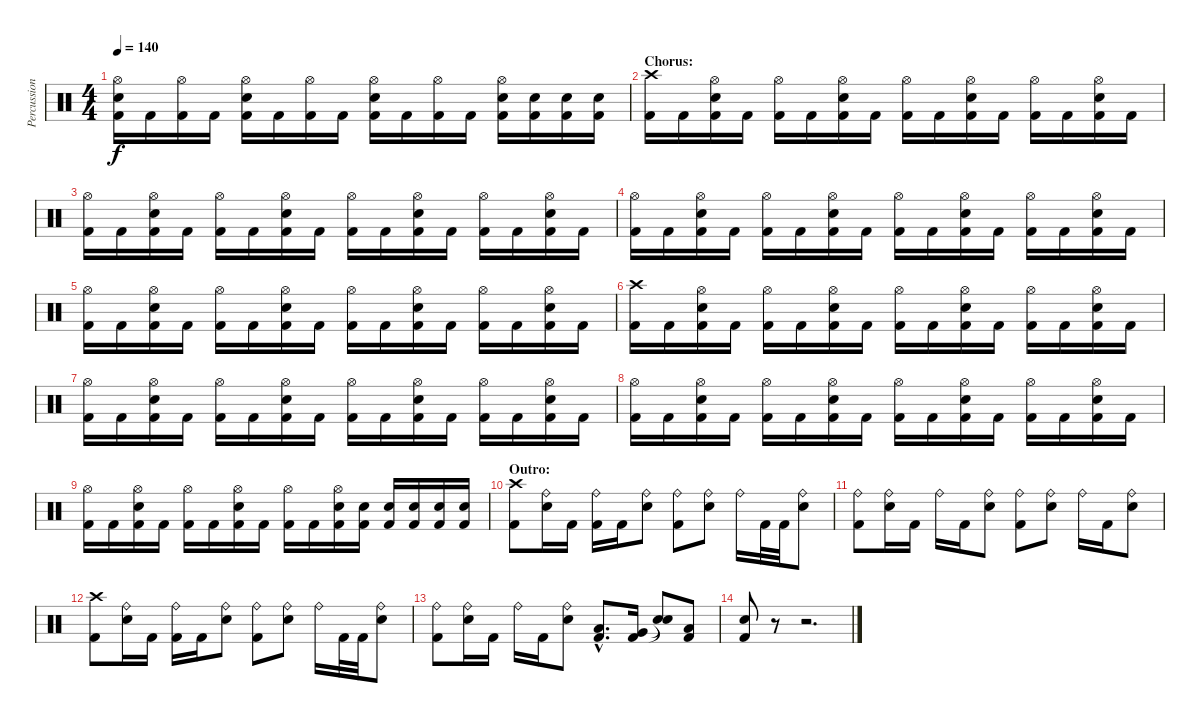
\track ("Percussion" "Percussion") {instrument percussion}
\staff {score}
\articulation defaults
\ts (4 4)
\tempo 140
\clef neutral
\ks c
("Hi-Hat (open)" "Electric Snare (hit)" "Kick (hit) 2").16{dy f} "Kick (hit) 2".16 ("Hi-Hat (open)" "Kick (hit) 2").16 "Kick (hit) 2".16 ("Hi-Hat (open)" "Electric Snare (hit)" "Kick (hit) 2").16 "Kick (hit) 2".16 ("Hi-Hat (open)" "Kick (hit) 2").16 "Kick (hit) 2".16 ("Hi-Hat (open)" "Electric Snare (hit)" "Kick (hit) 2").16 "Kick (hit) 2".16 ("Hi-Hat (open)" "Kick (hit) 2").16 "Kick (hit) 2".16 ("Hi-Hat (open)" "Electric Snare (hit)" "Kick (hit) 2").16 ("Electric Snare (hit)" "Kick (hit) 2").16 ("Electric Snare (hit)" "Kick (hit) 2").16 ("Electric Snare (hit)" "Kick (hit) 2").16 |
\section ("" "Chorus:")
("Crash high (hit)" "Kick (hit) 2").16 "Kick (hit) 2".16 ("Hi-Hat (open)" "Electric Snare (hit)" "Kick (hit) 2").16 "Kick (hit) 2".16 ("Hi-Hat (open)" "Kick (hit) 2").16 "Kick (hit) 2".16 ("Hi-Hat (open)" "Electric Snare (hit)" "Kick (hit) 2").16 "Kick (hit) 2".16 ("Hi-Hat (open)" "Kick (hit) 2").16 "Kick (hit) 2".16 ("Hi-Hat (open)" "Electric Snare (hit)" "Kick (hit) 2").16 "Kick (hit) 2".16 ("Hi-Hat (open)" "Kick (hit) 2").16 "Kick (hit) 2".16 ("Hi-Hat (open)" "Electric Snare (hit)" "Kick (hit) 2").16 "Kick (hit) 2".16 |
("Hi-Hat (open)" "Kick (hit) 2").16 "Kick (hit) 2".16 ("Hi-Hat (open)" "Electric Snare (hit)" "Kick (hit) 2").16 "Kick (hit) 2".16 ("Hi-Hat (open)" "Kick (hit) 2").16 "Kick (hit) 2".16 ("Hi-Hat (open)" "Electric Snare (hit)" "Kick (hit) 2").16 "Kick (hit) 2".16 ("Hi-Hat (open)" "Kick (hit) 2").16 "Kick (hit) 2".16 ("Hi-Hat (open)" "Electric Snare (hit)" "Kick (hit) 2").16 "Kick (hit) 2".16 ("Hi-Hat (open)" "Kick (hit) 2").16 "Kick (hit) 2".16 ("Hi-Hat (open)" "Electric Snare (hit)" "Kick (hit) 2").16 "Kick (hit) 2".16 |
("Hi-Hat (open)" "Kick (hit) 2").16 "Kick (hit) 2".16 ("Hi-Hat (open)" "Electric Snare (hit)" "Kick (hit) 2").16 "Kick (hit) 2".16 ("Hi-Hat (open)" "Kick (hit) 2").16 "Kick (hit) 2".16 ("Hi-Hat (open)" "Electric Snare (hit)" "Kick (hit) 2").16 "Kick (hit) 2".16 ("Hi-Hat (open)" "Kick (hit) 2").16 "Kick (hit) 2".16 ("Hi-Hat (open)" "Electric Snare (hit)" "Kick (hit) 2").16 "Kick (hit) 2".16 ("Hi-Hat (open)" "Kick (hit) 2").16 "Kick (hit) 2".16 ("Hi-Hat (open)" "Electric Snare (hit)" "Kick (hit) 2").16 "Kick (hit) 2".16 |
("Hi-Hat (open)" "Kick (hit) 2").16 "Kick (hit) 2".16 ("Hi-Hat (open)" "Electric Snare (hit)" "Kick (hit) 2").16 "Kick (hit) 2".16 ("Hi-Hat (open)" "Kick (hit) 2").16 "Kick (hit) 2".16 ("Hi-Hat (open)" "Electric Snare (hit)" "Kick (hit) 2").16 "Kick (hit) 2".16 ("Hi-Hat (open)" "Kick (hit) 2").16 "Kick (hit) 2".16 ("Hi-Hat (open)" "Electric Snare (hit)" "Kick (hit) 2").16 "Kick (hit) 2".16 ("Hi-Hat (open)" "Kick (hit) 2").16 "Kick (hit) 2".16 ("Hi-Hat (open)" "Electric Snare (hit)" "Kick (hit) 2").16 "Kick (hit) 2".16 |
("Crash high (hit)" "Kick (hit) 2").16 "Kick (hit) 2".16 ("Hi-Hat (open)" "Electric Snare (hit)" "Kick (hit) 2").16 "Kick (hit) 2".16 ("Hi-Hat (open)" "Kick (hit) 2").16 "Kick (hit) 2".16 ("Hi-Hat (open)" "Electric Snare (hit)" "Kick (hit) 2").16 "Kick (hit) 2".16 ("Hi-Hat (open)" "Kick (hit) 2").16 "Kick (hit) 2".16 ("Hi-Hat (open)" "Electric Snare (hit)" "Kick (hit) 2").16 "Kick (hit) 2".16 ("Hi-Hat (open)" "Kick (hit) 2").16 "Kick (hit) 2".16 ("Hi-Hat (open)" "Electric Snare (hit)" "Kick (hit) 2").16 "Kick (hit) 2".16 |
("Hi-Hat (open)" "Kick (hit) 2").16 "Kick (hit) 2".16 ("Hi-Hat (open)" "Electric Snare (hit)" "Kick (hit) 2").16 "Kick (hit) 2".16 ("Hi-Hat (open)" "Kick (hit) 2").16 "Kick (hit) 2".16 ("Hi-Hat (open)" "Electric Snare (hit)" "Kick (hit) 2").16 "Kick (hit) 2".16 ("Hi-Hat (open)" "Kick (hit) 2").16 "Kick (hit) 2".16 ("Hi-Hat (open)" "Electric Snare (hit)" "Kick (hit) 2").16 "Kick (hit) 2".16 ("Hi-Hat (open)" "Kick (hit) 2").16 "Kick (hit) 2".16 ("Hi-Hat (open)" "Electric Snare (hit)" "Kick (hit) 2").16 "Kick (hit) 2".16 |
("Hi-Hat (open)" "Kick (hit) 2").16 "Kick (hit) 2".16 ("Hi-Hat (open)" "Electric Snare (hit)" "Kick (hit) 2").16 "Kick (hit) 2".16 ("Hi-Hat (open)" "Kick (hit) 2").16 "Kick (hit) 2".16 ("Hi-Hat (open)" "Electric Snare (hit)" "Kick (hit) 2").16 "Kick (hit) 2".16 ("Hi-Hat (open)" "Kick (hit) 2").16 "Kick (hit) 2".16 ("Hi-Hat (open)" "Electric Snare (hit)" "Kick (hit) 2").16 "Kick (hit) 2".16 ("Hi-Hat (open)" "Kick (hit) 2").16 "Kick (hit) 2".16 ("Hi-Hat (open)" "Electric Snare (hit)" "Kick (hit) 2").16 "Kick (hit) 2".16 |
("Hi-Hat (open)" "Kick (hit) 2").16 "Kick (hit) 2".16 ("Hi-Hat (open)" "Electric Snare (hit)" "Kick (hit) 2").16 "Kick (hit) 2".16 ("Hi-Hat (open)" "Kick (hit) 2").16 "Kick (hit) 2".16 ("Hi-Hat (open)" "Electric Snare (hit)" "Kick (hit) 2").16 "Kick (hit) 2".16 ("Hi-Hat (open)" "Kick (hit) 2").16 "Kick (hit) 2".16 ("Hi-Hat (open)" "Electric Snare (hit)" "Kick (hit) 2").16 ("Electric Snare (hit)" "Kick (hit) 2").16 ("Electric Snare (hit)" "Kick (hit) 2").16 ("Electric Snare (hit)" "Kick (hit) 2").16 ("Electric Snare (hit)" "Kick (hit) 2").16 ("Electric Snare (hit)" "Kick (hit) 2").16 |
\section ("" "Outro:")
("Crash high (hit)" "Kick (hit) 2").8 ("Ride (bell)" "Electric Snare (hit)").16 "Kick (hit) 2".16 ("Ride (bell)" "Kick (hit) 2").16 "Kick (hit) 2".16 ("Ride (bell)" "Electric Snare (hit)").8 ("Ride (bell)" "Kick (hit) 2").8 ("Ride (bell)" "Electric Snare (hit)").8 "Ride (bell)".16 "Kick (hit) 2".32 "Kick (hit) 2".32 ("Ride (bell)" "Electric Snare (hit)").8 |
("Ride (bell)" "Kick (hit) 2").8 ("Ride (bell)" "Electric Snare (hit)").16 "Kick (hit) 2".16 "Ride (bell)".16 "Kick (hit) 2".16 ("Ride (bell)" "Electric Snare (hit)").8 ("Ride (bell)" "Kick (hit) 2").8 ("Ride (bell)" "Electric Snare (hit)").8 "Ride (bell)".16 "Kick (hit) 2".16 ("Ride (bell)" "Electric Snare (hit)").8 |
("Crash high (hit)" "Kick (hit) 2").8 ("Ride (bell)" "Electric Snare (hit)").16 "Kick (hit) 2".16 ("Ride (bell)" "Kick (hit) 2").16 "Kick (hit) 2".16 ("Ride (bell)" "Electric Snare (hit)").8 ("Ride (bell)" "Kick (hit) 2").8 ("Ride (bell)" "Electric Snare (hit)").8 "Ride (bell)".16 "Kick (hit) 2".32 "Kick (hit) 2".32 ("Ride (bell)" "Electric Snare (hit)").8 |
("Ride (bell)" "Kick (hit) 2").8 ("Ride (bell)" "Electric Snare (hit)").16 "Kick (hit) 2".16 "Ride (bell)".16 "Kick (hit) 2".16 ("Ride (bell)" "Electric Snare (hit)").8 ("Low Tom (hit)"{hac} "Kick (hit) 2"{hac}).8{d} ("Very Low Tom (hit)" "Kick (hit) 2").16 ("Snare (hit)"{t} "Snare (hit)"{t}).8 ("Low Floor Tom (hit)" "Kick (hit) 2").8 |
("Electric Snare (hit)" "Kick (hit) 2").8 r.8 r.2{d}
